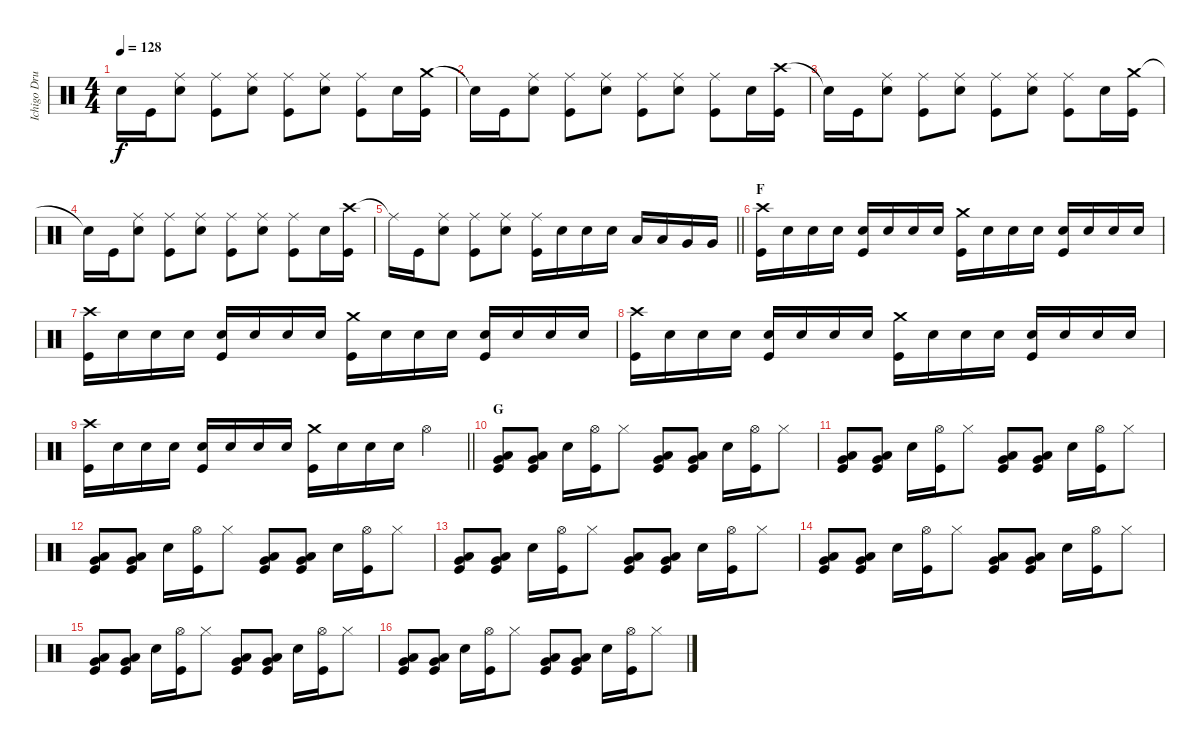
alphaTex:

\track ("Ichigo Drums" "Ichigo Dru") {instrument percussion}
\staff {score}
\articulation defaults
\ts (4 4)
\tempo 128
\clef neutral
\ks c "Snare (hit)"{t}.16{dy f} "Kick (hit)".16
("Ride (middle)" "Snare (hit) 2").8 ("Ride (middle)" "Kick (hit)").8 ("Ride (middle)" "Snare (hit) 2").8 ("Ride (middle)" "Kick (hit)").8 ("Ride (middle)" "Snare (hit) 2").8 ("Ride (middle)" "Kick (hit)").8 "Snare (hit) 2".16 ("Crash medium (hit)" "Kick (hit)").16 |
"Snare (hit)"{t}.16 "Kick (hit)".16 ("Ride (middle)" "Snare (hit) 2").8 ("Ride (middle)" "Kick (hit)").8 ("Ride (middle)" "Snare (hit) 2").8 ("Ride (middle)" "Kick (hit)").8 ("Ride (middle)" "Snare (hit) 2").8 ("Ride (middle)" "Kick (hit)").8 "Snare (hit) 2".16 ("Crash high (hit)" "Kick (hit)").16 |
"Snare (hit)"{t}.16 "Kick (hit)".16 ("Ride (middle)" "Snare (hit) 2").8 ("Ride (middle)" "Kick (hit)").8 ("Ride (middle)" "Snare (hit) 2").8 ("Ride (middle)" "Kick (hit)").8 ("Ride (middle)" "Snare (hit) 2").8 ("Ride (middle)" "Kick (hit)").8 "Snare (hit) 2".16 ("Crash medium (hit)" "Kick (hit)").16 |
"Snare (hit)"{t}.16 "Kick (hit)".16 ("Ride (middle)" "Snare (hit) 2").8 ("Ride (middle)" "Kick (hit)").8 ("Ride (middle)" "Snare (hit) 2").8 ("Ride (middle)" "Kick (hit)").8 ("Ride (middle)" "Snare (hit) 2").8 ("Ride (middle)" "Kick (hit)").8 "Snare (hit) 2".16 ("Crash high (hit)" "Kick (hit)").16 |
\barLineRight lightlight "Ride (middle)"{t}.16 "Kick (hit)".16
("Ride (middle)" "Snare (hit) 2").8 ("Ride (middle)" "Kick (hit)").8 ("Ride (middle)" "Snare (hit) 2").8 ("Ride (middle)" "Kick (hit)").16 "Snare (hit) 2".16 "Snare (hit) 2".16 "Snare (hit) 2".16 "Low Tom (hit)".16 "Low Tom (hit)".16 "Very Low Tom (hit)".16 "Very Low Tom (hit)".16 |
\section ("" "F")
("Crash high (hit)" "Kick (hit)").16 "Snare (hit) 2".16 "Snare (hit) 2".16 "Snare (hit) 2".16 ("Snare (hit) 2" "Kick (hit)").16 "Snare (hit) 2".16 "Snare (hit) 2".16 "Snare (hit) 2".16 ("Crash medium (hit)" "Kick (hit)").16 "Snare (hit) 2".16 "Snare (hit) 2".16 "Snare (hit) 2".16 ("Snare (hit) 2" "Kick (hit)").16 "Snare (hit) 2".16 "Snare (hit) 2".16 "Snare (hit) 2".16 |
("Crash high (hit)" "Kick (hit)").16 "Snare (hit) 2".16 "Snare (hit) 2".16 "Snare (hit) 2".16 ("Snare (hit) 2" "Kick (hit)").16 "Snare (hit) 2".16 "Snare (hit) 2".16 "Snare (hit) 2".16 ("Crash medium (hit)" "Kick (hit)").16 "Snare (hit) 2".16 "Snare (hit) 2".16 "Snare (hit) 2".16 ("Snare (hit) 2" "Kick (hit)").16 "Snare (hit) 2".16 "Snare (hit) 2".16 "Snare (hit) 2".16 |
("Crash high (hit)" "Kick (hit)").16 "Snare (hit) 2".16 "Snare (hit) 2".16 "Snare (hit) 2".16 ("Snare (hit) 2" "Kick (hit)").16 "Snare (hit) 2".16 "Snare (hit) 2".16 "Snare (hit) 2".16 ("Crash medium (hit)" "Kick (hit)").16 "Snare (hit) 2".16 "Snare (hit) 2".16 "Snare (hit) 2".16 ("Snare (hit) 2" "Kick (hit)").16 "Snare (hit) 2".16 "Snare (hit) 2".16 "Snare (hit) 2".16 |
\barLineRight lightlight
("Crash high (hit)" "Kick (hit)").16 "Snare (hit) 2".16 "Snare (hit) 2".16 "Snare (hit) 2".16 ("Snare (hit) 2" "Kick (hit)").16 "Snare (hit) 2".16 "Snare (hit) 2".16 "Snare (hit) 2".16 ("Crash medium (hit)" "Kick (hit)").16 "Snare (hit) 2".16 "Snare (hit) 2".16 "Snare (hit) 2".16 "Hi-Hat (open)".4 |
\section ("" "G")
("Low Tom (hit)" "Very Low Tom (hit)" "Kick (hit)").8 ("Low Tom (hit)" "Very Low Tom (hit)" "Kick (hit)").8 "Snare (hit) 2".16 ("Hi-Hat (open)" "Kick (hit)").16 "Hi-Hat (closed)".8 ("Low Tom (hit)" "Very Low Tom (hit)" "Kick (hit)").8 ("Low Tom (hit)" "Very Low Tom (hit)" "Kick (hit)").8 "Snare (hit) 2".16 ("Hi-Hat (open)" "Kick (hit)").16 "Hi-Hat (closed)".8 |
("Low Tom (hit)" "Very Low Tom (hit)" "Kick (hit)").8 ("Low Tom (hit)" "Very Low Tom (hit)" "Kick (hit)").8 "Snare (hit) 2".16 ("Hi-Hat (open)" "Kick (hit)").16 "Hi-Hat (closed)".8 ("Low Tom (hit)" "Very Low Tom (hit)" "Kick (hit)").8 ("Low Tom (hit)" "Very Low Tom (hit)" "Kick (hit)").8 "Snare (hit) 2".16 ("Hi-Hat (open)" "Kick (hit)").16 "Hi-Hat (closed)".8 |
("Low Tom (hit)" "Very Low Tom (hit)" "Kick (hit)").8 ("Low Tom (hit)" "Very Low Tom (hit)" "Kick (hit)").8 "Snare (hit) 2".16 ("Hi-Hat (open)" "Kick (hit)").16 "Hi-Hat (closed)".8 ("Low Tom (hit)" "Very Low Tom (hit)" "Kick (hit)").8 ("Low Tom (hit)" "Very Low Tom (hit)" "Kick (hit)").8 "Snare (hit) 2".16 ("Hi-Hat (open)" "Kick (hit)").16 "Hi-Hat (closed)".8 |
("Low Tom (hit)" "Very Low Tom (hit)" "Kick (hit)").8 ("Low Tom (hit)" "Very Low Tom (hit)" "Kick (hit)").8 "Snare (hit) 2".16 ("Hi-Hat (open)" "Kick (hit)").16 "Hi-Hat (closed)".8 ("Low Tom (hit)" "Very Low Tom (hit)" "Kick (hit)").8 ("Low Tom (hit)" "Very Low Tom (hit)" "Kick (hit)").8 "Snare (hit) 2".16 ("Hi-Hat (open)" "Kick (hit)").16 "Hi-Hat (closed)".8 |
("Low Tom (hit)" "Very Low Tom (hit)" "Kick (hit)").8 ("Low Tom (hit)" "Very Low Tom (hit)" "Kick (hit)").8 "Snare (hit) 2".16 ("Hi-Hat (open)" "Kick (hit)").16 "Hi-Hat (closed)".8 ("Low Tom (hit)" "Very Low Tom (hit)" "Kick (hit)").8 ("Low Tom (hit)" "Very Low Tom (hit)" "Kick (hit)").8 "Snare (hit) 2".16 ("Hi-Hat (open)" "Kick (hit)").16 "Hi-Hat (closed)".8 |
("Low Tom (hit)" "Very Low Tom (hit)" "Kick (hit)").8 ("Low Tom (hit)" "Very Low Tom (hit)" "Kick (hit)").8 "Snare (hit) 2".16 ("Hi-Hat (open)" "Kick (hit)").16 "Hi-Hat (closed)".8 ("Low Tom (hit)" "Very Low Tom (hit)" "Kick (hit)").8 ("Low Tom (hit)" "Very Low Tom (hit)" "Kick (hit)").8 "Snare (hit) 2".16 ("Hi-Hat (open)" "Kick (hit)").16 "Hi-Hat (closed)".8 |
("Low Tom (hit)" "Very Low Tom (hit)" "Kick (hit)").8 ("Low Tom (hit)" "Very Low Tom (hit)" "Kick (hit)").8 "Snare (hit) 2".16 ("Hi-Hat (open)" "Kick (hit)").16 "Hi-Hat (closed)".8 ("Low Tom (hit)" "Very Low Tom (hit)" "Kick (hit)").8 ("Low Tom (hit)" "Very Low Tom (hit)" "Kick (hit)").8 "Snare (hit) 2".16 ("Hi-Hat (open)" "Kick (hit)").16 "Hi-Hat (closed)".8
